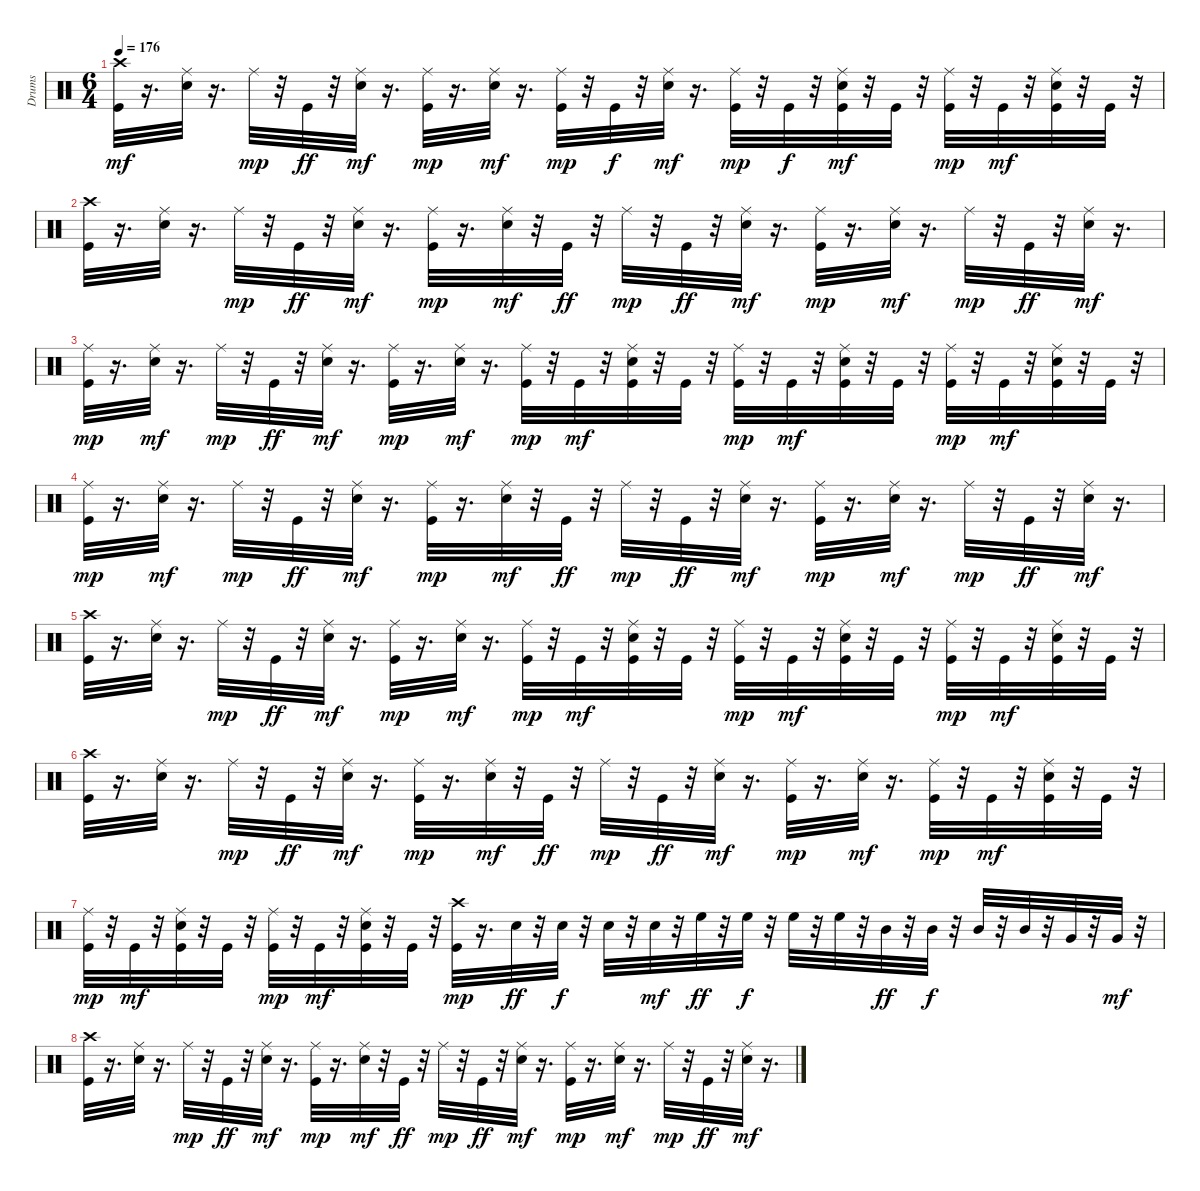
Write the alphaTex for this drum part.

\track ("Drums" "Drums") {instrument percussion}
\staff {score}
\articulation defaults
\ts (6 4)
\tempo 176
\clef neutral
\ks c
("Kick (hit)" "Crash high (hit)").32{dy mf} r.16{d} ("Snare (hit) 2" "Ride (middle)").32 r.16{d} "Ride (middle)".32{dy mp} r.32 "Kick (hit)".32{dy ff} r.32 ("Snare (hit) 2" "Ride (middle)").32{dy mf} r.16{d} ("Kick (hit)" "Ride (middle)").32{dy mp} r.16{d} ("Snare (hit) 2" "Ride (middle)").32{dy mf} r.16{d} ("Kick (hit)" "Ride (middle)").32{dy mp} r.32 "Kick (hit)".32{dy f} r.32 ("Snare (hit) 2" "Ride (middle)").32{dy mf} r.16{d} ("Kick (hit)" "Ride (middle)").32{dy mp} r.32 "Kick (hit)".32{dy f} r.32 ("Kick (hit)" "Snare (hit) 2" "Ride (middle)").32{dy mf} r.32 "Kick (hit)".32 r.32 ("Kick (hit)" "Ride (middle)").32{dy mp} r.32 "Kick (hit)".32{dy mf} r.32 ("Kick (hit)" "Snare (hit) 2" "Ride (middle)").32 r.32 "Kick (hit)".32 r.32 |
("Kick (hit)" "Crash high (hit)").32 r.16{d} ("Snare (hit) 2" "Ride (middle)").32 r.16{d} "Ride (middle)".32{dy mp} r.32 "Kick (hit)".32{dy ff} r.32 ("Snare (hit) 2" "Ride (middle)").32{dy mf} r.16{d} ("Kick (hit)" "Ride (middle)").32{dy mp} r.16{d} ("Snare (hit) 2" "Ride (middle)").32{dy mf} r.32 "Kick (hit)".32{dy ff} r.32 "Ride (middle)".32{dy mp} r.32 "Kick (hit)".32{dy ff} r.32 ("Snare (hit) 2" "Ride (middle)").32{dy mf} r.16{d} ("Kick (hit)" "Ride (middle)").32{dy mp} r.16{d} ("Snare (hit) 2" "Ride (middle)").32{dy mf} r.16{d} "Ride (middle)".32{dy mp} r.32 "Kick (hit)".32{dy ff} r.32 ("Snare (hit) 2" "Ride (middle)").32{dy mf} r.16{d} |
("Kick (hit)" "Ride (middle)").32{dy mp} r.16{d} ("Snare (hit) 2" "Ride (middle)").32{dy mf} r.16{d} "Ride (middle)".32{dy mp} r.32 "Kick (hit)".32{dy ff} r.32 ("Snare (hit) 2" "Ride (middle)").32{dy mf} r.16{d} ("Kick (hit)" "Ride (middle)").32{dy mp} r.16{d} ("Snare (hit) 2" "Ride (middle)").32{dy mf} r.16{d} ("Kick (hit)" "Ride (middle)").32{dy mp} r.32 "Kick (hit)".32{dy mf} r.32 ("Kick (hit)" "Snare (hit) 2" "Ride (middle)").32 r.32 "Kick (hit)".32 r.32 ("Kick (hit)" "Ride (middle)").32{dy mp} r.32 "Kick (hit)".32{dy mf} r.32 ("Kick (hit)" "Snare (hit) 2" "Ride (middle)").32 r.32 "Kick (hit)".32 r.32 ("Kick (hit)" "Ride (middle)").32{dy mp} r.32 "Kick (hit)".32{dy mf} r.32 ("Kick (hit)" "Snare (hit) 2" "Ride (middle)").32 r.32 "Kick (hit)".32 r.32 |
("Kick (hit)" "Ride (middle)").32{dy mp} r.16{d} ("Snare (hit) 2" "Ride (middle)").32{dy mf} r.16{d} "Ride (middle)".32{dy mp} r.32 "Kick (hit)".32{dy ff} r.32 ("Snare (hit) 2" "Ride (middle)").32{dy mf} r.16{d} ("Kick (hit)" "Ride (middle)").32{dy mp} r.16{d} ("Snare (hit) 2" "Ride (middle)").32{dy mf} r.32 "Kick (hit)".32{dy ff} r.32 "Ride (middle)".32{dy mp} r.32 "Kick (hit)".32{dy ff} r.32 ("Snare (hit) 2" "Ride (middle)").32{dy mf} r.16{d} ("Kick (hit)" "Ride (middle)").32{dy mp} r.16{d} ("Snare (hit) 2" "Ride (middle)").32{dy mf} r.16{d} "Ride (middle)".32{dy mp} r.32 "Kick (hit)".32{dy ff} r.32 ("Snare (hit) 2" "Ride (middle)").32{dy mf} r.16{d} |
("Kick (hit)" "Crash high (hit)").32 r.16{d} ("Snare (hit) 2" "Ride (middle)").32 r.16{d} "Ride (middle)".32{dy mp} r.32 "Kick (hit)".32{dy ff} r.32 ("Snare (hit) 2" "Ride (middle)").32{dy mf} r.16{d} ("Kick (hit)" "Ride (middle)").32{dy mp} r.16{d} ("Snare (hit) 2" "Ride (middle)").32{dy mf} r.16{d} ("Kick (hit)" "Ride (middle)").32{dy mp} r.32 "Kick (hit)".32{dy mf} r.32 ("Kick (hit)" "Snare (hit) 2" "Ride (middle)").32 r.32 "Kick (hit)".32 r.32 ("Kick (hit)" "Ride (middle)").32{dy mp} r.32 "Kick (hit)".32{dy mf} r.32 ("Kick (hit)" "Snare (hit) 2" "Ride (middle)").32 r.32 "Kick (hit)".32 r.32 ("Kick (hit)" "Ride (middle)").32{dy mp} r.32 "Kick (hit)".32{dy mf} r.32 ("Kick (hit)" "Snare (hit) 2" "Ride (middle)").32 r.32 "Kick (hit)".32 r.32 |
("Kick (hit)" "Crash high (hit)").32 r.16{d} ("Snare (hit) 2" "Ride (middle)").32 r.16{d} "Ride (middle)".32{dy mp} r.32 "Kick (hit)".32{dy ff} r.32 ("Snare (hit) 2" "Ride (middle)").32{dy mf} r.16{d} ("Kick (hit)" "Ride (middle)").32{dy mp} r.16{d} ("Snare (hit) 2" "Ride (middle)").32{dy mf} r.32 "Kick (hit)".32{dy ff} r.32 "Ride (middle)".32{dy mp} r.32 "Kick (hit)".32{dy ff} r.32 ("Snare (hit) 2" "Ride (middle)").32{dy mf} r.16{d} ("Kick (hit)" "Ride (middle)").32{dy mp} r.16{d} ("Snare (hit) 2" "Ride (middle)").32{dy mf} r.16{d} ("Kick (hit)" "Ride (middle)").32{dy mp} r.32 "Kick (hit)".32{dy mf} r.32 ("Kick (hit)" "Snare (hit) 2" "Ride (middle)").32 r.32 "Kick (hit)".32 r.32 |
("Kick (hit)" "Ride (middle)").32{dy mp} r.32 "Kick (hit)".32{dy mf} r.32 ("Kick (hit)" "Snare (hit) 2" "Ride (middle)").32 r.32 "Kick (hit)".32 r.32 ("Kick (hit)" "Ride (middle)").32{dy mp} r.32 "Kick (hit)".32{dy mf} r.32 ("Kick (hit)" "Snare (hit) 2" "Ride (middle)").32 r.32 "Kick (hit)".32 r.32 ("Kick (hit)" "Crash high (hit)").32{dy mp} r.16{d} "Snare (hit) 2".32{dy ff} r.32 "Snare (hit) 2".32{dy f} r.32 "Snare (hit) 2".32 r.32 "Snare (hit) 2".32{dy mf} r.32 "High Floor Tom (hit)".32{dy ff} r.32 "High Floor Tom (hit)".32{dy f} r.32 "High Floor Tom (hit)".32 r.32 "High Floor Tom (hit)".32 r.32 "Mid Tom (hit)".32{dy ff} r.32 "Mid Tom (hit)".32{dy f} r.32 "Mid Tom (hit)".32 r.32 "Mid Tom (hit)".32 r.32 "Very Low Tom (hit)".32 r.32 "Very Low Tom (hit)".32{dy mf} r.32 |
("Kick (hit)" "Crash high (hit)").32 r.16{d} ("Snare (hit) 2" "Ride (middle)").32 r.16{d} "Ride (middle)".32{dy mp} r.32 "Kick (hit)".32{dy ff} r.32 ("Snare (hit) 2" "Ride (middle)").32{dy mf} r.16{d} ("Kick (hit)" "Ride (middle)").32{dy mp} r.16{d} ("Snare (hit) 2" "Ride (middle)").32{dy mf} r.32 "Kick (hit)".32{dy ff} r.32 "Ride (middle)".32{dy mp} r.32 "Kick (hit)".32{dy ff} r.32 ("Snare (hit) 2" "Ride (middle)").32{dy mf} r.16{d} ("Kick (hit)" "Ride (middle)").32{dy mp} r.16{d} ("Snare (hit) 2" "Ride (middle)").32{dy mf} r.16{d} "Ride (middle)".32{dy mp} r.32 "Kick (hit)".32{dy ff} r.32 ("Snare (hit) 2" "Ride (middle)").32{dy mf} r.16{d}
